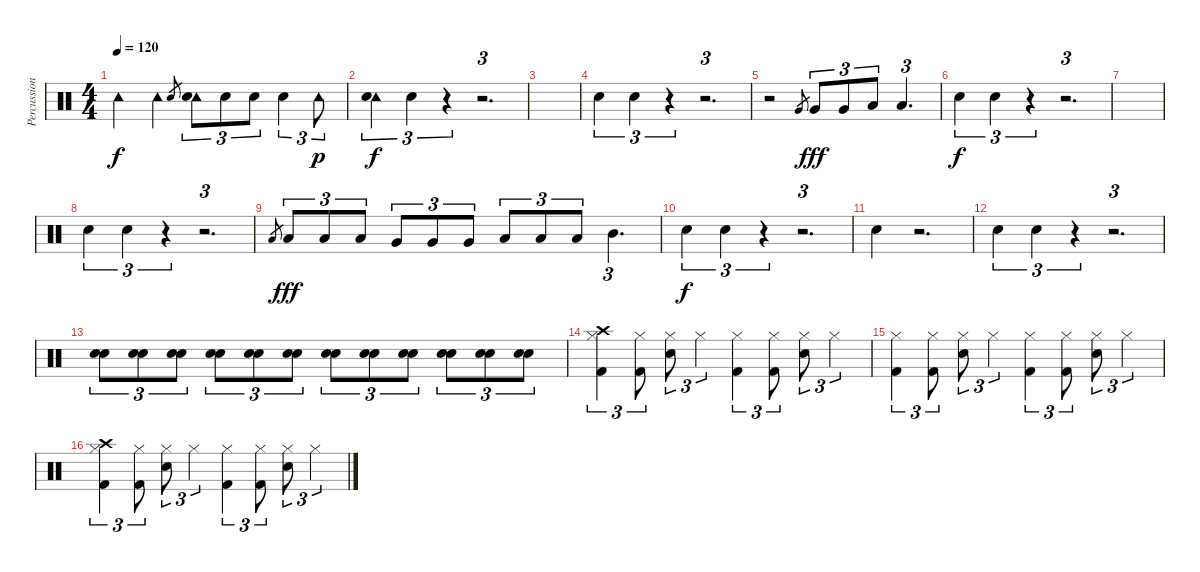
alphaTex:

\track ("Percussion" "Percussion") {instrument percussion}
\staff {score}
\articulation defaults
\ts (4 4)
\tempo 120
\clef neutral
\ks c "Tambourine (hit)".4{dy f} "Tambourine (hit)".4 "Snare (hit) 2".8{gr}
("Tambourine (hit)" "Snare (hit) 2").8{tu (3 2)} "Snare (hit) 2".8{tu (3 2)} "Snare (hit) 2".8{tu (3 2)} "Snare (hit) 2".4{tu (3 2)} "Tambourine (hit)".8{tu (3 2) dy p} |
("Tambourine (hit)" "Snare (hit) 2").4{tu (3 2) dy f} "Snare (hit) 2".4{tu (3 2)} r.4{tu (3 2)} r.2{d tu (3 2)} |
|
"Snare (hit) 2".4{tu (3 2)} "Snare (hit) 2".4{tu (3 2)} r.4{tu (3 2)} r.2{d tu (3 2)} |
r.2 "Very Low Tom (hit)".8{gr} "Very Low Tom (hit)".8{tu (3 2) dy fff} "Very Low Tom (hit)".8{tu (3 2)} "Low Tom (hit)".8{tu (3 2)} "Low Tom (hit)".4{d tu (3 2)} |
"Snare (hit) 2".4{tu (3 2) dy f} "Snare (hit) 2".4{tu (3 2)} r.4{tu (3 2)} r.2{d tu (3 2)} |
|
"Snare (hit) 2".4{tu (3 2)} "Snare (hit) 2".4{tu (3 2)} r.4{tu (3 2)} r.2{d tu (3 2)} |
"Low Floor Tom (hit)".8{gr} "Low Floor Tom (hit)".8{tu (3 2) dy fff} "Low Floor Tom (hit)".8{tu (3 2)} "Low Floor Tom (hit)".8{tu (3 2)} "Very Low Tom (hit)".8{tu (3 2)} "Very Low Tom (hit)".8{tu (3 2)} "Very Low Tom (hit)".8{tu (3 2)} "Low Tom (hit)".8{tu (3 2)} "Low Tom (hit)".8{tu (3 2)} "Low Tom (hit)".8{tu (3 2)} "Mid Tom (hit)".4{d tu (3 2)} |
"Snare (hit) 2".4{tu (3 2) dy f} "Snare (hit) 2".4{tu (3 2)} r.4{tu (3 2)} r.2{d tu (3 2)} |
"Snare (hit) 2".4 r.2{d} |
"Snare (hit) 2".4{tu (3 2)} "Snare (hit) 2".4{tu (3 2)} r.4{tu (3 2)} r.2{d tu (3 2)} |
("Electric Snare (hit)" "Snare (hit) 2").8{tu (3 2)} ("Electric Snare (hit)" "Snare (hit) 2").8{tu (3 2)} ("Electric Snare (hit)" "Snare (hit) 2").8{tu (3 2)} ("Electric Snare (hit)" "Snare (hit) 2").8{tu (3 2)} ("Electric Snare (hit)" "Snare (hit) 2").8{tu (3 2)} ("Electric Snare (hit)" "Snare (hit) 2").8{tu (3 2)} ("Electric Snare (hit)" "Snare (hit) 2").8{tu (3 2)} ("Electric Snare (hit)" "Snare (hit) 2").8{tu (3 2)} ("Electric Snare (hit)" "Snare (hit) 2").8{tu (3 2)} ("Electric Snare (hit)" "Snare (hit) 2").8{tu (3 2)} ("Electric Snare (hit)" "Snare (hit) 2").8{tu (3 2)} ("Electric Snare (hit)" "Snare (hit) 2").8{tu (3 2)} |
("Hi-Hat (closed)" "Crash high (hit)" "Kick (hit) 2").4{tu (3 2)} ("Hi-Hat (closed)" "Kick (hit) 2").8{tu (3 2)} ("Hi-Hat (closed)" "Electric Snare (hit)").8{tu (3 2)} "Hi-Hat (closed)".4{tu (3 2)} ("Hi-Hat (closed)" "Kick (hit) 2").4{tu (3 2)} ("Hi-Hat (closed)" "Kick (hit) 2").8{tu (3 2)} ("Hi-Hat (closed)" "Electric Snare (hit)").8{tu (3 2)} "Hi-Hat (closed)".4{tu (3 2)} |
("Hi-Hat (closed)" "Kick (hit) 2").4{tu (3 2)} ("Hi-Hat (closed)" "Kick (hit) 2").8{tu (3 2)} ("Hi-Hat (closed)" "Electric Snare (hit)").8{tu (3 2)} "Hi-Hat (closed)".4{tu (3 2)} ("Hi-Hat (closed)" "Kick (hit) 2").4{tu (3 2)} ("Hi-Hat (closed)" "Kick (hit) 2").8{tu (3 2)} ("Hi-Hat (closed)" "Electric Snare (hit)").8{tu (3 2)} "Hi-Hat (closed)".4{tu (3 2)} |
("Hi-Hat (closed)" "Crash high (hit)" "Kick (hit) 2").4{tu (3 2)} ("Hi-Hat (closed)" "Kick (hit) 2").8{tu (3 2)} ("Hi-Hat (closed)" "Electric Snare (hit)").8{tu (3 2)} "Hi-Hat (closed)".4{tu (3 2)} ("Hi-Hat (closed)" "Kick (hit) 2").4{tu (3 2)} ("Hi-Hat (closed)" "Kick (hit) 2").8{tu (3 2)} ("Hi-Hat (closed)" "Electric Snare (hit)").8{tu (3 2)} "Hi-Hat (closed)".4{tu (3 2)}
